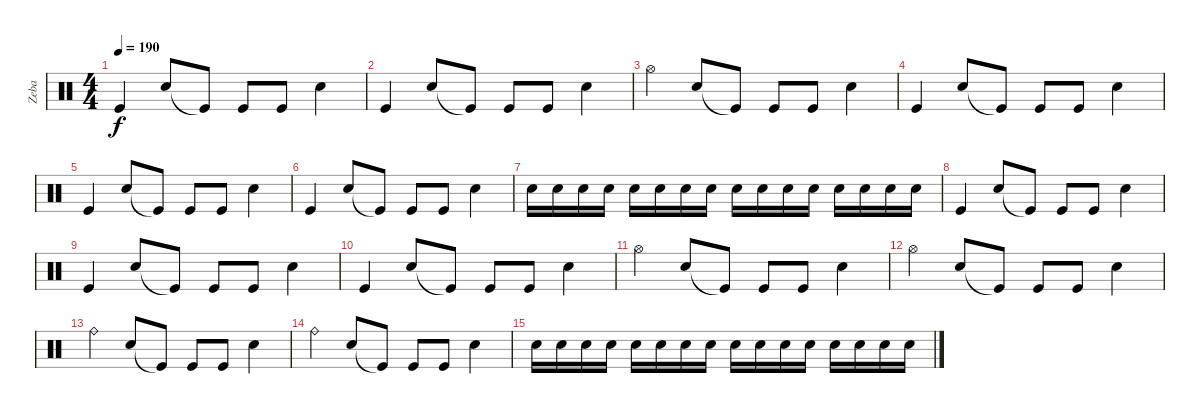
\track ("Zeba" "Zeba") {instrument percussion}
\staff {score}
\articulation defaults
\ts (4 4)
\tempo 190
\clef neutral
\ks c "Kick (hit)".4{dy f} "Snare (hit) 2".8 "Kick (hit)"{t}.8 "Kick (hit)".8 "Kick (hit)".8 "Snare (hit) 2".4
|
"Kick (hit)".4 "Snare (hit) 2".8 "Kick (hit)"{t}.8 "Kick (hit)".8 "Kick (hit)".8 "Snare (hit) 2".4 |
"Hi-Hat (open)".4 "Snare (hit) 2".8 "Kick (hit)"{t}.8 "Kick (hit)".8 "Kick (hit)".8 "Snare (hit) 2".4 |
"Kick (hit)".4 "Snare (hit) 2".8 "Kick (hit)"{t}.8 "Kick (hit)".8 "Kick (hit)".8 "Snare (hit) 2".4 |
"Kick (hit)".4 "Snare (hit) 2".8 "Kick (hit)"{t}.8 "Kick (hit)".8 "Kick (hit)".8 "Snare (hit) 2".4 |
"Kick (hit)".4 "Snare (hit) 2".8 "Kick (hit)"{t}.8 "Kick (hit)".8 "Kick (hit)".8 "Snare (hit) 2".4 |
"Electric Snare (hit)".16 "Electric Snare (hit)".16 "Electric Snare (hit)".16 "Electric Snare (hit)".16 "Electric Snare (hit)".16 "Electric Snare (hit)".16 "Electric Snare (hit)".16 "Electric Snare (hit)".16 "Snare (hit) 2".16 "Snare (hit) 2".16 "Snare (hit) 2".16 "Snare (hit) 2".16 "Snare (hit) 2".16 "Snare (hit) 2".16 "Snare (hit) 2".16 "Snare (hit) 2".16 |
"Kick (hit)".4 "Snare (hit) 2".8 "Kick (hit)"{t}.8 "Kick (hit)".8 "Kick (hit)".8 "Snare (hit) 2".4 |
"Kick (hit)".4 "Snare (hit) 2".8 "Kick (hit)"{t}.8 "Kick (hit)".8 "Kick (hit)".8 "Snare (hit) 2".4 |
"Kick (hit)".4 "Snare (hit) 2".8 "Kick (hit)"{t}.8 "Kick (hit)".8 "Kick (hit)".8 "Snare (hit) 2".4 |
"Hi-Hat (open)".4 "Snare (hit) 2".8 "Kick (hit)"{t}.8 "Kick (hit)".8 "Kick (hit)".8 "Snare (hit) 2".4 |
"Hi-Hat (open)".4 "Snare (hit) 2".8 "Kick (hit)"{t}.8 "Kick (hit)".8 "Kick (hit)".8 "Snare (hit) 2".4 |
"Ride (bell)".4 "Snare (hit) 2".8 "Kick (hit)"{t}.8 "Kick (hit)".8 "Kick (hit)".8 "Snare (hit) 2".4 |
"Ride (bell)".4 "Snare (hit) 2".8 "Kick (hit)"{t}.8 "Kick (hit)".8 "Kick (hit)".8 "Snare (hit) 2".4 |
"Electric Snare (hit)".16 "Electric Snare (hit)".16 "Electric Snare (hit)".16 "Electric Snare (hit)".16 "Electric Snare (hit)".16 "Electric Snare (hit)".16 "Electric Snare (hit)".16 "Electric Snare (hit)".16 "Snare (hit) 2".16 "Snare (hit) 2".16 "Snare (hit) 2".16 "Snare (hit) 2".16 "Snare (hit) 2".16 "Snare (hit) 2".16 "Snare (hit) 2".16 "Snare (hit) 2".16
